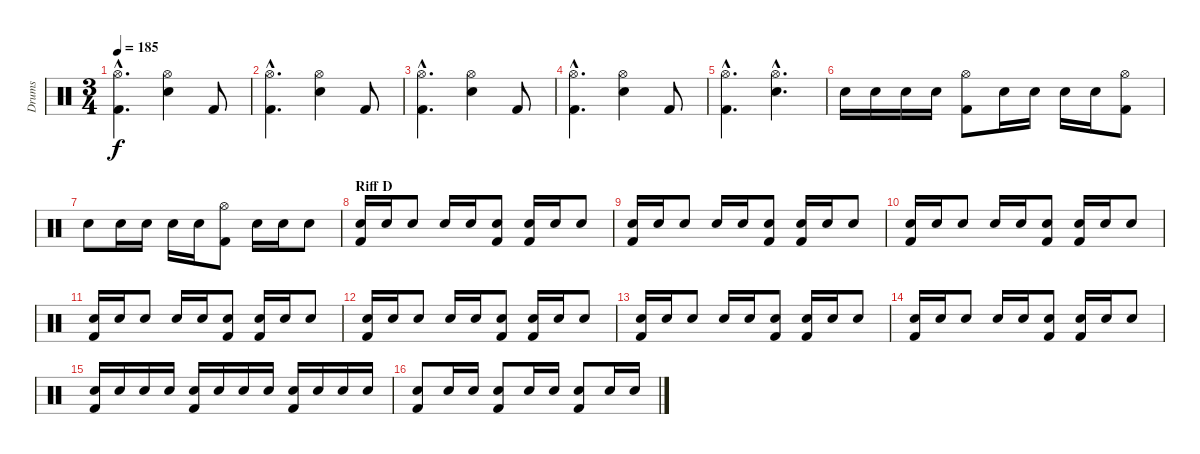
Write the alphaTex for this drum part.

\track ("Drums" "Drums") {instrument percussion}
\staff {score}
\articulation defaults
\ts (3 4)
\tempo 185
\clef neutral
\ks c
("Hi-Hat (open)"{hac} "Kick (hit) 2"{hac}).4{d dy f} ("Hi-Hat (open)" "Electric Snare (hit)").4 "Kick (hit) 2".8 |
("Hi-Hat (open)"{hac} "Kick (hit) 2"{hac}).4{d} ("Hi-Hat (open)" "Electric Snare (hit)").4 "Kick (hit) 2".8 |
("Hi-Hat (open)"{hac} "Kick (hit) 2"{hac}).4{d} ("Hi-Hat (open)" "Electric Snare (hit)").4 "Kick (hit) 2".8 |
("Hi-Hat (open)"{hac} "Kick (hit) 2"{hac}).4{d} ("Hi-Hat (open)" "Electric Snare (hit)").4 "Kick (hit) 2".8 |
("Hi-Hat (open)"{hac} "Kick (hit) 2"{hac}).4{d} ("Hi-Hat (open)"{hac} "Electric Snare (hit)"{hac}).4{d} |
"Electric Snare (hit)".16 "Electric Snare (hit)".16 "Electric Snare (hit)".16 "Electric Snare (hit)".16 ("Hi-Hat (open)" "Kick (hit) 2").8 "Electric Snare (hit)".16 "Electric Snare (hit)".16 "Electric Snare (hit)".16 "Electric Snare (hit)".16 ("Hi-Hat (open)" "Kick (hit) 2").8 |
"Electric Snare (hit)".8 "Electric Snare (hit)".16 "Electric Snare (hit)".16 "Electric Snare (hit)".16 "Electric Snare (hit)".16 ("Hi-Hat (open)" "Kick (hit) 2").8 "Electric Snare (hit)".16 "Electric Snare (hit)".16 "Electric Snare (hit)".8 |
\section ("" "Riff D")
("Electric Snare (hit)" "Kick (hit) 2").16 "Electric Snare (hit)".16 "Electric Snare (hit)".8 "Electric Snare (hit)".16 "Electric Snare (hit)".16 ("Electric Snare (hit)" "Kick (hit) 2").8 ("Electric Snare (hit)" "Kick (hit) 2").16 "Electric Snare (hit)".16 "Electric Snare (hit)".8 |
("Electric Snare (hit)" "Kick (hit) 2").16 "Electric Snare (hit)".16 "Electric Snare (hit)".8 "Electric Snare (hit)".16 "Electric Snare (hit)".16 ("Electric Snare (hit)" "Kick (hit) 2").8 ("Electric Snare (hit)" "Kick (hit) 2").16 "Electric Snare (hit)".16 "Electric Snare (hit)".8 |
("Electric Snare (hit)" "Kick (hit) 2").16 "Electric Snare (hit)".16 "Electric Snare (hit)".8 "Electric Snare (hit)".16 "Electric Snare (hit)".16 ("Electric Snare (hit)" "Kick (hit) 2").8 ("Electric Snare (hit)" "Kick (hit) 2").16 "Electric Snare (hit)".16 "Electric Snare (hit)".8 |
("Electric Snare (hit)" "Kick (hit) 2").16 "Electric Snare (hit)".16 "Electric Snare (hit)".8 "Electric Snare (hit)".16 "Electric Snare (hit)".16 ("Electric Snare (hit)" "Kick (hit) 2").8 ("Electric Snare (hit)" "Kick (hit) 2").16 "Electric Snare (hit)".16 "Electric Snare (hit)".8 |
("Electric Snare (hit)" "Kick (hit) 2").16 "Electric Snare (hit)".16 "Electric Snare (hit)".8 "Electric Snare (hit)".16 "Electric Snare (hit)".16 ("Electric Snare (hit)" "Kick (hit) 2").8 ("Electric Snare (hit)" "Kick (hit) 2").16 "Electric Snare (hit)".16 "Electric Snare (hit)".8 |
("Electric Snare (hit)" "Kick (hit) 2").16 "Electric Snare (hit)".16 "Electric Snare (hit)".8 "Electric Snare (hit)".16 "Electric Snare (hit)".16 ("Electric Snare (hit)" "Kick (hit) 2").8 ("Electric Snare (hit)" "Kick (hit) 2").16 "Electric Snare (hit)".16 "Electric Snare (hit)".8 |
("Electric Snare (hit)" "Kick (hit) 2").16 "Electric Snare (hit)".16 "Electric Snare (hit)".8 "Electric Snare (hit)".16 "Electric Snare (hit)".16 ("Electric Snare (hit)" "Kick (hit) 2").8 ("Electric Snare (hit)" "Kick (hit) 2").16 "Electric Snare (hit)".16 "Electric Snare (hit)".8 |
("Electric Snare (hit)" "Kick (hit) 2").16 "Electric Snare (hit)".16 "Electric Snare (hit)".16 "Electric Snare (hit)".16 ("Electric Snare (hit)" "Kick (hit) 2").16 "Electric Snare (hit)".16 "Electric Snare (hit)".16 "Electric Snare (hit)".16 ("Electric Snare (hit)" "Kick (hit) 2").16 "Electric Snare (hit)".16 "Electric Snare (hit)".16 "Electric Snare (hit)".16 |
("Electric Snare (hit)" "Kick (hit) 2").8 "Electric Snare (hit)".16 "Electric Snare (hit)".16 ("Electric Snare (hit)" "Kick (hit) 2").8 "Electric Snare (hit)".16 "Electric Snare (hit)".16 ("Electric Snare (hit)" "Kick (hit) 2").8 "Electric Snare (hit)".16 "Electric Snare (hit)".16
